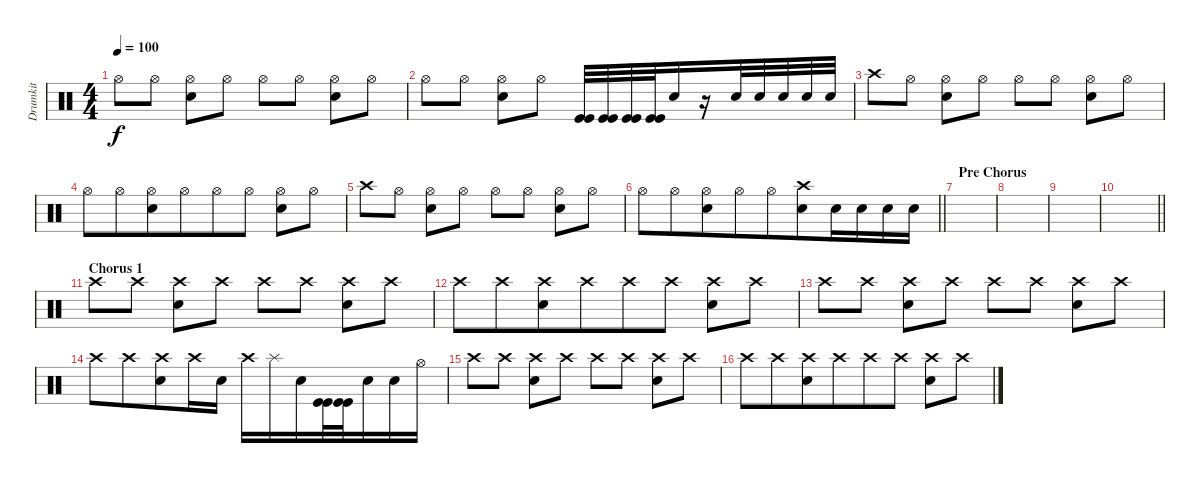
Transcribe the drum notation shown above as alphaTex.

\track ("Drumkit" "Drumkit") {instrument percussion}
\staff {score}
\articulation defaults
\ts (4 4)
\tempo 100
\clef neutral
\ks c "Hi-Hat (open)".8{dy f} "Hi-Hat (open)".8
("Hi-Hat (open)" "Electric Snare (hit)").8 "Hi-Hat (open)".8 "Hi-Hat (open)".8 "Hi-Hat (open)".8 ("Hi-Hat (open)" "Electric Snare (hit)").8{beam merge} "Hi-Hat (open)".8 |
"Hi-Hat (open)".8 "Hi-Hat (open)".8 ("Hi-Hat (open)" "Electric Snare (hit)").8{beam merge} "Hi-Hat (open)".8 ("Kick (hit)" "Kick (hit)").32 ("Kick (hit)" "Kick (hit)").32{beam merge} ("Kick (hit)" "Kick (hit)").32 ("Kick (hit)" "Kick (hit)").32 "Electric Snare (hit)".16{beam merge} r.16 "Electric Snare (hit)".32 "Electric Snare (hit)".32 "Electric Snare (hit)".32 "Electric Snare (hit)".32 "Electric Snare (hit)".32 |
"Crash high (hit)".8 "Hi-Hat (open)".8 ("Hi-Hat (open)" "Electric Snare (hit)").8{beam merge} "Hi-Hat (open)".8 "Hi-Hat (open)".8 "Hi-Hat (open)".8 ("Hi-Hat (open)" "Electric Snare (hit)").8{beam merge} "Hi-Hat (open)".8 |
"Hi-Hat (open)".8{beam merge} "Hi-Hat (open)".8{beam merge} ("Hi-Hat (open)" "Electric Snare (hit)").8{beam merge} "Hi-Hat (open)".8{beam merge} "Hi-Hat (open)".8 "Hi-Hat (open)".8 ("Hi-Hat (open)" "Electric Snare (hit)").8 "Hi-Hat (open)".8 |
"Crash high (hit)".8 "Hi-Hat (open)".8 ("Hi-Hat (open)" "Electric Snare (hit)").8{beam merge} "Hi-Hat (open)".8 "Hi-Hat (open)".8 "Hi-Hat (open)".8 ("Hi-Hat (open)" "Electric Snare (hit)").8{beam merge} "Hi-Hat (open)".8 |
\barLineRight lightlight "Hi-Hat (open)".8{beam merge} "Hi-Hat (open)".8{beam merge}
("Hi-Hat (open)" "Electric Snare (hit)").8{beam merge} "Hi-Hat (open)".8{beam merge} "Hi-Hat (open)".8 ("Crash high (hit)" "Electric Snare (hit)").8{beam merge} "Electric Snare (hit)".16{beam merge} "Electric Snare (hit)".16 "Electric Snare (hit)".16{beam merge} "Electric Snare (hit)".16 |
\section ("" "Pre Chorus")
|
|
|
\barLineRight lightlight
|
\section ("" "Chorus 1")
"Crash high (hit)".8 "Crash high (hit)".8 ("Crash high (hit)" "Electric Snare (hit)").8{beam merge} "Crash high (hit)".8 "Crash high (hit)".8 "Crash high (hit)".8 ("Crash high (hit)" "Electric Snare (hit)").8{beam merge} "Crash high (hit)".8 |
"Crash high (hit)".8{beam merge} "Crash high (hit)".8{beam merge} ("Crash high (hit)" "Electric Snare (hit)").8{beam merge} "Crash high (hit)".8{beam merge} "Crash high (hit)".8 "Crash high (hit)".8 ("Crash high (hit)" "Electric Snare (hit)").8 "Crash high (hit)".8 |
"Crash high (hit)".8 "Crash high (hit)".8 ("Crash high (hit)" "Electric Snare (hit)").8{beam merge} "Crash high (hit)".8 "Crash high (hit)".8 "Crash high (hit)".8 ("Crash high (hit)" "Electric Snare (hit)").8{beam merge} "Crash high (hit)".8 |
"Crash high (hit)".8{beam merge} "Crash high (hit)".8{beam merge} ("Crash high (hit)" "Electric Snare (hit)").8{beam merge} "Crash high (hit)".16{beam merge} "Electric Snare (hit)".16 "Crash high (hit)".16{beam merge} "Splash (hit)".16{beam merge} "Electric Snare (hit)".16 ("Kick (hit)" "Kick (hit)").32{beam merge} ("Kick (hit)" "Kick (hit)").32{beam merge} "Electric Snare (hit)".16{beam merge} "Electric Snare (hit)".16 "Hi-Hat (open)".16 |
"Crash high (hit)".8 "Crash high (hit)".8 ("Crash high (hit)" "Electric Snare (hit)").8{beam merge} "Crash high (hit)".8 "Crash high (hit)".8 "Crash high (hit)".8 ("Crash high (hit)" "Electric Snare (hit)").8{beam merge} "Crash high (hit)".8 |
"Crash high (hit)".8{beam merge} "Crash high (hit)".8{beam merge} ("Crash high (hit)" "Electric Snare (hit)").8{beam merge} "Crash high (hit)".8{beam merge} "Crash high (hit)".8 "Crash high (hit)".8 ("Crash high (hit)" "Electric Snare (hit)").8 "Crash high (hit)".8
